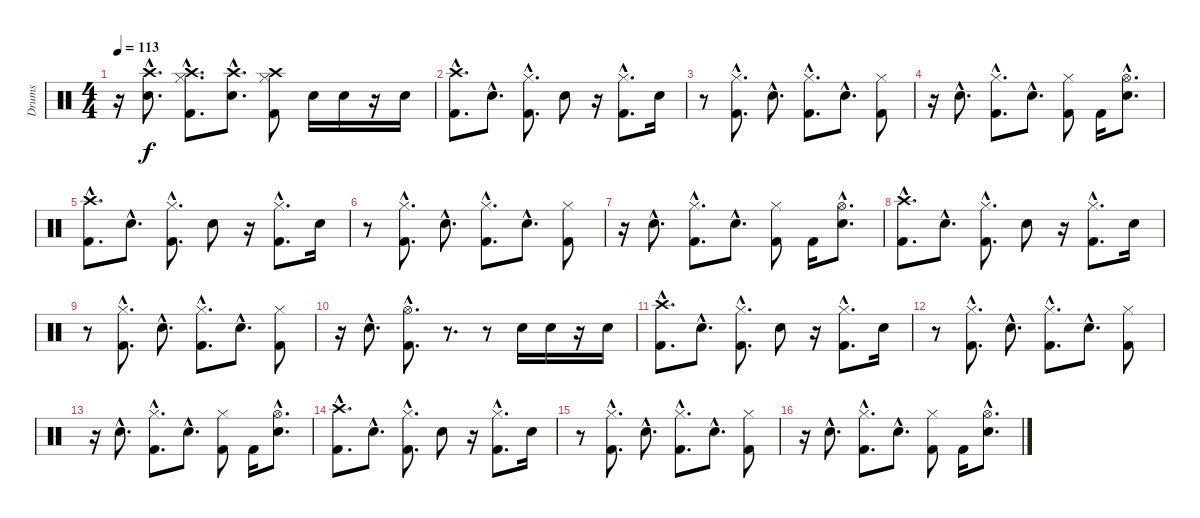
\track ("Drums" "Drums") {instrument percussion}
\staff {score}
\articulation defaults
\ts (4 4)
\tempo 113
\clef neutral
\ks c
r.16{dy f} ("Crash high (hit)"{hac} "Electric Snare (hit)"{hac}).8{d} ("Crash high (hit)"{hac} "Hi-Hat (closed)"{hac} "Kick (hit) 2"{hac}).8{d} ("Crash high (hit)"{hac} "Electric Snare (hit)"{hac}).8{d} ("Crash high (hit)" "Hi-Hat (closed)" "Kick (hit) 2").8 "Electric Snare (hit)".16 "Electric Snare (hit)".16 r.16 "Electric Snare (hit)".16 |
("Crash high (hit)"{hac} "Kick (hit) 2"{hac}).8{d} "Electric Snare (hit)"{hac}.8{d} ("Hi-Hat (closed)"{hac} "Kick (hit) 2"{hac}).8{d} "Electric Snare (hit)".8 r.16 ("Hi-Hat (closed)"{hac} "Kick (hit) 2"{hac}).8{d} "Electric Snare (hit)".16 |
r.8 ("Hi-Hat (closed)"{hac} "Kick (hit) 2"{hac}).8{d} "Electric Snare (hit)"{hac}.8{d} ("Hi-Hat (closed)"{hac} "Kick (hit) 2"{hac}).8{d} "Electric Snare (hit)"{hac}.8{d} ("Hi-Hat (closed)" "Kick (hit) 2").8 |
r.16 "Electric Snare (hit)"{hac}.8{d} ("Hi-Hat (closed)"{hac} "Kick (hit) 2"{hac}).8{d} "Electric Snare (hit)"{hac}.8{d} ("Hi-Hat (closed)" "Kick (hit) 2").8 "Kick (hit) 2".16 ("Hi-Hat (open)"{hac} "Electric Snare (hit)"{hac}).8{d} |
("Crash high (hit)"{hac} "Kick (hit) 2"{hac}).8{d} "Electric Snare (hit)"{hac}.8{d} ("Hi-Hat (closed)"{hac} "Kick (hit) 2"{hac}).8{d} "Electric Snare (hit)".8 r.16 ("Hi-Hat (closed)"{hac} "Kick (hit) 2"{hac}).8{d} "Electric Snare (hit)".16 |
r.8 ("Hi-Hat (closed)"{hac} "Kick (hit) 2"{hac}).8{d} "Electric Snare (hit)"{hac}.8{d} ("Hi-Hat (closed)"{hac} "Kick (hit) 2"{hac}).8{d} "Electric Snare (hit)"{hac}.8{d} ("Hi-Hat (closed)" "Kick (hit) 2").8 |
r.16 "Electric Snare (hit)"{hac}.8{d} ("Hi-Hat (closed)"{hac} "Kick (hit) 2"{hac}).8{d} "Electric Snare (hit)"{hac}.8{d} ("Hi-Hat (closed)" "Kick (hit) 2").8 "Kick (hit) 2".16 ("Hi-Hat (open)"{hac} "Electric Snare (hit)"{hac}).8{d} |
("Crash high (hit)"{hac} "Kick (hit) 2"{hac}).8{d} "Electric Snare (hit)"{hac}.8{d} ("Hi-Hat (closed)"{hac} "Kick (hit) 2"{hac}).8{d} "Electric Snare (hit)".8 r.16 ("Hi-Hat (closed)"{hac} "Kick (hit) 2"{hac}).8{d} "Electric Snare (hit)".16 |
r.8 ("Hi-Hat (closed)"{hac} "Kick (hit) 2"{hac}).8{d} "Electric Snare (hit)"{hac}.8{d} ("Hi-Hat (closed)"{hac} "Kick (hit) 2"{hac}).8{d} "Electric Snare (hit)"{hac}.8{d} ("Hi-Hat (closed)" "Kick (hit) 2").8 |
r.16 "Electric Snare (hit)"{hac}.8{d} ("Hi-Hat (open)"{hac} "Kick (hit) 2"{hac}).8{d} r.8{d} r.8 "Electric Snare (hit)".16 "Electric Snare (hit)".16 r.16 "Electric Snare (hit)".16 |
("Crash high (hit)"{hac} "Kick (hit) 2"{hac}).8{d} "Electric Snare (hit)"{hac}.8{d} ("Hi-Hat (closed)"{hac} "Kick (hit) 2"{hac}).8{d} "Electric Snare (hit)".8 r.16 ("Hi-Hat (closed)"{hac} "Kick (hit) 2"{hac}).8{d} "Electric Snare (hit)".16 |
r.8 ("Hi-Hat (closed)"{hac} "Kick (hit) 2"{hac}).8{d} "Electric Snare (hit)"{hac}.8{d} ("Hi-Hat (closed)"{hac} "Kick (hit) 2"{hac}).8{d} "Electric Snare (hit)"{hac}.8{d} ("Hi-Hat (closed)" "Kick (hit) 2").8 |
r.16 "Electric Snare (hit)"{hac}.8{d} ("Hi-Hat (closed)"{hac} "Kick (hit) 2"{hac}).8{d} "Electric Snare (hit)"{hac}.8{d} ("Hi-Hat (closed)" "Kick (hit) 2").8 "Kick (hit) 2".16 ("Hi-Hat (open)"{hac} "Electric Snare (hit)"{hac}).8{d} |
("Crash high (hit)"{hac} "Kick (hit) 2"{hac}).8{d} "Electric Snare (hit)"{hac}.8{d} ("Hi-Hat (closed)"{hac} "Kick (hit) 2"{hac}).8{d} "Electric Snare (hit)".8 r.16 ("Hi-Hat (closed)"{hac} "Kick (hit) 2"{hac}).8{d} "Electric Snare (hit)".16 |
r.8 ("Hi-Hat (closed)"{hac} "Kick (hit) 2"{hac}).8{d} "Electric Snare (hit)"{hac}.8{d} ("Hi-Hat (closed)"{hac} "Kick (hit) 2"{hac}).8{d} "Electric Snare (hit)"{hac}.8{d} ("Hi-Hat (closed)" "Kick (hit) 2").8 |
r.16 "Electric Snare (hit)"{hac}.8{d} ("Hi-Hat (closed)"{hac} "Kick (hit) 2"{hac}).8{d} "Electric Snare (hit)"{hac}.8{d} ("Hi-Hat (closed)" "Kick (hit) 2").8 "Kick (hit) 2".16 ("Hi-Hat (open)"{hac} "Electric Snare (hit)"{hac}).8{d}
